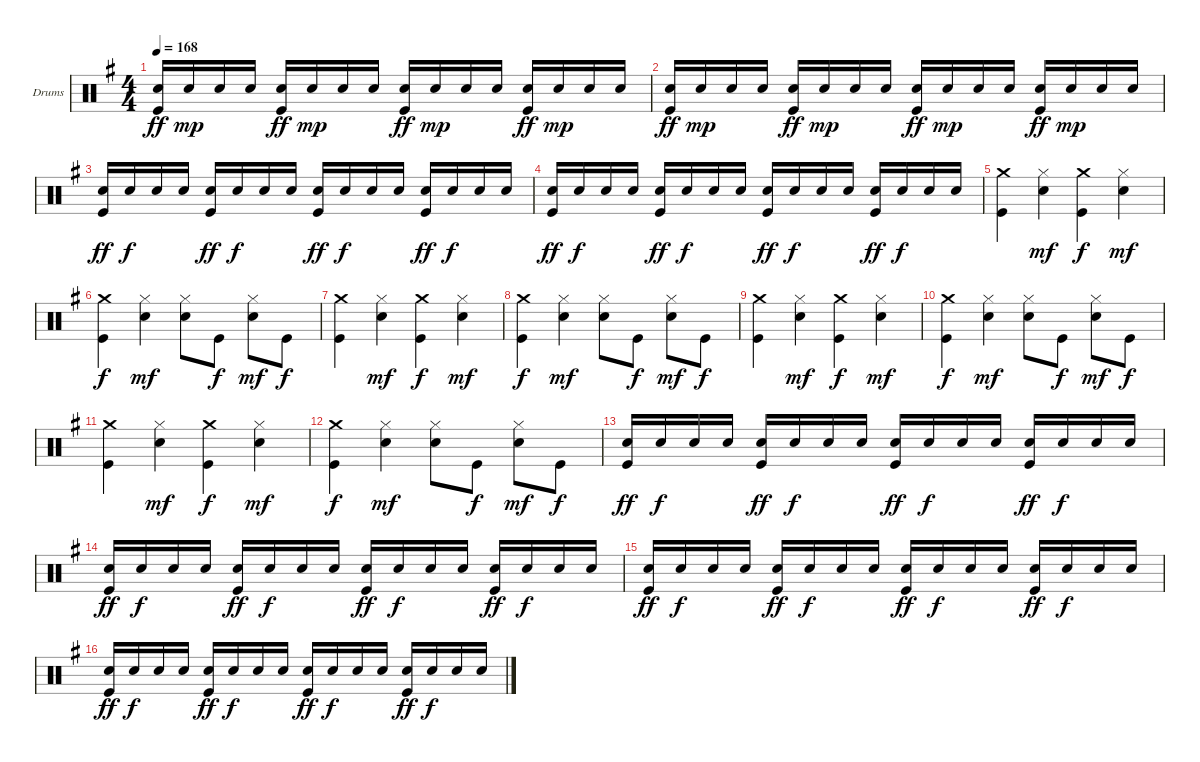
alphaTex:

\defaultSystemsLayout 4
\bracketExtendMode groupsimilarinstruments
\firstSystemTrackNameOrientation horizontal
\otherSystemsTrackNameOrientation horizontal
\track ("Drumkit" "Drums") {instrument percussion}
\staff {score}
\articulation defaults
\ts (4 4)
\tempo 168
\clef neutral
\ks g
("Snare (hit) 2" "Kick (hit)").16{dy ff} "Snare (hit) 2".16{dy mp} "Snare (hit) 2".16 "Snare (hit) 2".16 ("Snare (hit) 2" "Kick (hit)").16{dy ff} "Snare (hit) 2".16{dy mp} "Snare (hit) 2".16 "Snare (hit) 2".16 ("Snare (hit) 2" "Kick (hit)").16{dy ff} "Snare (hit) 2".16{dy mp} "Snare (hit) 2".16 "Snare (hit) 2".16 ("Snare (hit) 2" "Kick (hit)").16{dy ff} "Snare (hit) 2".16{dy mp} "Snare (hit) 2".16 "Snare (hit) 2".16 |
("Snare (hit) 2" "Kick (hit)").16{dy ff} "Snare (hit) 2".16{dy mp} "Snare (hit) 2".16 "Snare (hit) 2".16 ("Snare (hit) 2" "Kick (hit)").16{dy ff} "Snare (hit) 2".16{dy mp} "Snare (hit) 2".16 "Snare (hit) 2".16 ("Snare (hit) 2" "Kick (hit)").16{dy ff} "Snare (hit) 2".16{dy mp} "Snare (hit) 2".16 "Snare (hit) 2".16 ("Snare (hit) 2" "Kick (hit)").16{dy ff} "Snare (hit) 2".16{dy mp} "Snare (hit) 2".16 "Snare (hit) 2".16 |
("Snare (hit) 2" "Kick (hit)").16{dy ff} "Snare (hit) 2".16{dy f} "Snare (hit) 2".16 "Snare (hit) 2".16 ("Snare (hit) 2" "Kick (hit)").16{dy ff} "Snare (hit) 2".16{dy f} "Snare (hit) 2".16 "Snare (hit) 2".16 ("Snare (hit) 2" "Kick (hit)").16{dy ff} "Snare (hit) 2".16{dy f} "Snare (hit) 2".16 "Snare (hit) 2".16 ("Snare (hit) 2" "Kick (hit)").16{dy ff} "Snare (hit) 2".16{dy f} "Snare (hit) 2".16 "Snare (hit) 2".16 |
("Snare (hit) 2" "Kick (hit)").16{dy ff} "Snare (hit) 2".16{dy f} "Snare (hit) 2".16 "Snare (hit) 2".16 ("Snare (hit) 2" "Kick (hit)").16{dy ff} "Snare (hit) 2".16{dy f} "Snare (hit) 2".16 "Snare (hit) 2".16 ("Snare (hit) 2" "Kick (hit)").16{dy ff} "Snare (hit) 2".16{dy f} "Snare (hit) 2".16 "Snare (hit) 2".16 ("Snare (hit) 2" "Kick (hit)").16{dy ff} "Snare (hit) 2".16{dy f} "Snare (hit) 2".16 "Snare (hit) 2".16 |
("Crash medium (hit)" "Kick (hit)").4 ("Hi-Hat (closed)" "Snare (hit) 2").4{dy mf} ("Crash medium (hit)" "Kick (hit)").4{dy f} ("Hi-Hat (closed)" "Snare (hit) 2").4{dy mf} |
("Crash medium (hit)" "Kick (hit)").4{dy f} ("Hi-Hat (closed)" "Snare (hit) 2").4{dy mf} ("Hi-Hat (closed)" "Snare (hit) 2").8 "Kick (hit)".8{dy f} ("Hi-Hat (closed)" "Snare (hit) 2").8{dy mf} "Kick (hit)".8{dy f} |
("Crash medium (hit)" "Kick (hit)").4 ("Hi-Hat (closed)" "Snare (hit) 2").4{dy mf} ("Crash medium (hit)" "Kick (hit)").4{dy f} ("Hi-Hat (closed)" "Snare (hit) 2").4{dy mf} |
("Crash medium (hit)" "Kick (hit)").4{dy f} ("Hi-Hat (closed)" "Snare (hit) 2").4{dy mf} ("Hi-Hat (closed)" "Snare (hit) 2").8 "Kick (hit)".8{dy f} ("Hi-Hat (closed)" "Snare (hit) 2").8{dy mf} "Kick (hit)".8{dy f} |
("Crash medium (hit)" "Kick (hit)").4 ("Hi-Hat (closed)" "Snare (hit) 2").4{dy mf} ("Crash medium (hit)" "Kick (hit)").4{dy f} ("Hi-Hat (closed)" "Snare (hit) 2").4{dy mf} |
("Crash medium (hit)" "Kick (hit)").4{dy f} ("Hi-Hat (closed)" "Snare (hit) 2").4{dy mf} ("Hi-Hat (closed)" "Snare (hit) 2").8 "Kick (hit)".8{dy f} ("Hi-Hat (closed)" "Snare (hit) 2").8{dy mf} "Kick (hit)".8{dy f} |
("Crash medium (hit)" "Kick (hit)").4 ("Hi-Hat (closed)" "Snare (hit) 2").4{dy mf} ("Crash medium (hit)" "Kick (hit)").4{dy f} ("Hi-Hat (closed)" "Snare (hit) 2").4{dy mf} |
("Crash medium (hit)" "Kick (hit)").4{dy f} ("Hi-Hat (closed)" "Snare (hit) 2").4{dy mf} ("Hi-Hat (closed)" "Snare (hit) 2").8 "Kick (hit)".8{dy f} ("Hi-Hat (closed)" "Snare (hit) 2").8{dy mf} "Kick (hit)".8{dy f} |
("Snare (hit) 2" "Kick (hit)").16{dy ff} "Snare (hit) 2".16{dy f} "Snare (hit) 2".16 "Snare (hit) 2".16 ("Snare (hit) 2" "Kick (hit)").16{dy ff} "Snare (hit) 2".16{dy f} "Snare (hit) 2".16 "Snare (hit) 2".16 ("Snare (hit) 2" "Kick (hit)").16{dy ff} "Snare (hit) 2".16{dy f} "Snare (hit) 2".16 "Snare (hit) 2".16 ("Snare (hit) 2" "Kick (hit)").16{dy ff} "Snare (hit) 2".16{dy f} "Snare (hit) 2".16 "Snare (hit) 2".16 |
("Snare (hit) 2" "Kick (hit)").16{dy ff} "Snare (hit) 2".16{dy f} "Snare (hit) 2".16 "Snare (hit) 2".16 ("Snare (hit) 2" "Kick (hit)").16{dy ff} "Snare (hit) 2".16{dy f} "Snare (hit) 2".16 "Snare (hit) 2".16 ("Snare (hit) 2" "Kick (hit)").16{dy ff} "Snare (hit) 2".16{dy f} "Snare (hit) 2".16 "Snare (hit) 2".16 ("Snare (hit) 2" "Kick (hit)").16{dy ff} "Snare (hit) 2".16{dy f} "Snare (hit) 2".16 "Snare (hit) 2".16 |
("Snare (hit) 2" "Kick (hit)").16{dy ff} "Snare (hit) 2".16{dy f} "Snare (hit) 2".16 "Snare (hit) 2".16 ("Snare (hit) 2" "Kick (hit)").16{dy ff} "Snare (hit) 2".16{dy f} "Snare (hit) 2".16 "Snare (hit) 2".16 ("Snare (hit) 2" "Kick (hit)").16{dy ff} "Snare (hit) 2".16{dy f} "Snare (hit) 2".16 "Snare (hit) 2".16 ("Snare (hit) 2" "Kick (hit)").16{dy ff} "Snare (hit) 2".16{dy f} "Snare (hit) 2".16 "Snare (hit) 2".16 |
("Snare (hit) 2" "Kick (hit)").16{dy ff} "Snare (hit) 2".16{dy f} "Snare (hit) 2".16 "Snare (hit) 2".16 ("Snare (hit) 2" "Kick (hit)").16{dy ff} "Snare (hit) 2".16{dy f} "Snare (hit) 2".16 "Snare (hit) 2".16 ("Snare (hit) 2" "Kick (hit)").16{dy ff} "Snare (hit) 2".16{dy f} "Snare (hit) 2".16 "Snare (hit) 2".16 ("Snare (hit) 2" "Kick (hit)").16{dy ff} "Snare (hit) 2".16{dy f} "Snare (hit) 2".16 "Snare (hit) 2".16
